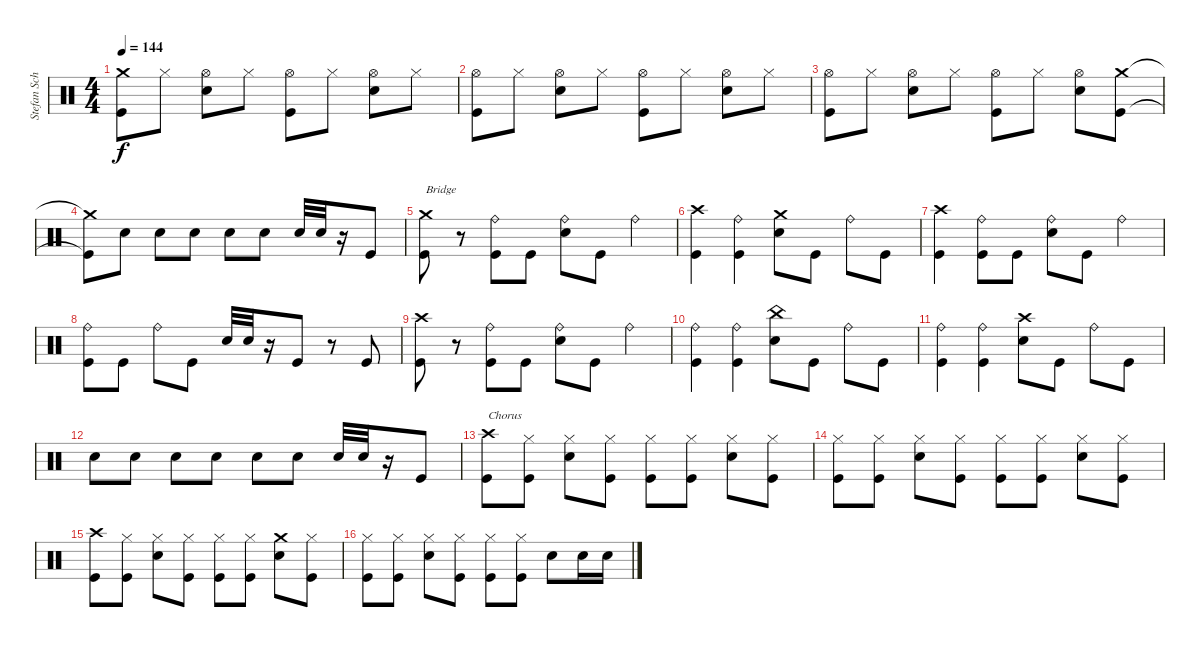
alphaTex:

\track ("Stefan Schwarzmann" "Stefan Sch") {instrument percussion}
\staff {score}
\articulation defaults
\ts (4 4)
\tempo 144
\clef neutral
\ks c
("Kick (hit)"{t} "Crash medium (hit)"{t}).8{dy f} "Hi-Hat (closed)".8 ("Snare (hit) 2" "Hi-Hat (open)").8 "Hi-Hat (closed)".8 ("Kick (hit)" "Hi-Hat (open)").8 "Hi-Hat (closed)".8 ("Snare (hit) 2" "Hi-Hat (open)").8 "Hi-Hat (closed)".8 |
("Kick (hit)" "Hi-Hat (open)").8 "Hi-Hat (closed)".8 ("Snare (hit) 2" "Hi-Hat (open)").8 "Hi-Hat (closed)".8 ("Kick (hit)" "Hi-Hat (open)").8 "Hi-Hat (closed)".8 ("Snare (hit) 2" "Hi-Hat (open)").8 "Hi-Hat (closed)".8 |
("Kick (hit)" "Hi-Hat (open)").8 "Hi-Hat (closed)".8 ("Snare (hit) 2" "Hi-Hat (open)").8 "Hi-Hat (closed)".8 ("Kick (hit)" "Hi-Hat (open)").8 "Hi-Hat (closed)".8 ("Snare (hit) 2" "Hi-Hat (open)").8 ("Crash medium (hit)" "Kick (hit)").8 |
("Crash medium (hit)"{t} "Kick (hit)"{t}).8 "Snare (hit) 2".8 "Snare (hit) 2".8 "Snare (hit) 2".8 "Snare (hit) 2".8 "Snare (hit) 2".8 "Snare (hit) 2".32 "Snare (hit) 2".32 r.16 "Kick (hit)".8 |
("Kick (hit)" "Crash medium (hit)").8{txt "Bridge"} r.8 ("Kick (hit)" "Ride (bell)").8 "Kick (hit)".8 ("Snare (hit) 2" "Ride (bell)").8 "Kick (hit)".8 "Ride (bell)".4 |
("Kick (hit)" "Crash high (hit)").4 ("Kick (hit)" "Ride (bell)").4 ("Snare (hit) 2" "Crash medium (hit)").8 "Kick (hit)".8 "Ride (bell)".8 "Kick (hit)".8 |
("Kick (hit)" "Crash high (hit)").4 ("Kick (hit)" "Ride (bell)").8 "Kick (hit)".8 ("Snare (hit) 2" "Ride (bell)").8 "Kick (hit)".8 "Ride (bell)".4 |
("Kick (hit)" "Ride (bell)").8 "Kick (hit)".8 "Ride (bell)".8 "Kick (hit)".8 "Snare (hit) 2".32 "Snare (hit) 2".32 r.16 "Kick (hit)".8 r.8 "Kick (hit)".8 |
("Kick (hit)" "Crash high (hit)").8 r.8 ("Kick (hit)" "Ride (bell)").8 "Kick (hit)".8 ("Snare (hit) 2" "Ride (bell)").8 "Kick (hit)".8 "Ride (bell)".4 |
("Kick (hit)" "Ride (bell)").4 ("Kick (hit)" "Ride (bell)").4 ("Snare (hit) 2" "China (hit)").8 "Kick (hit)".8 "Ride (bell)".8 "Kick (hit)".8 |
("Kick (hit)" "Ride (bell)").4 ("Kick (hit)" "Ride (bell)").4 ("Snare (hit) 2" "Crash high (hit)").8 "Kick (hit)".8 "Ride (bell)".8 "Kick (hit)".8 |
"Snare (hit) 2".8 "Snare (hit) 2".8 "Snare (hit) 2".8 "Snare (hit) 2".8 "Snare (hit) 2".8 "Snare (hit) 2".8 "Snare (hit) 2".32 "Snare (hit) 2".32 r.16 "Kick (hit)".8 |
("Kick (hit)" "Crash high (hit)").8{txt "Chorus"} ("Kick (hit)" "Hi-Hat (closed)").8 ("Snare (hit) 2" "Hi-Hat (closed)").8 ("Kick (hit)" "Hi-Hat (closed)").8 ("Kick (hit)" "Hi-Hat (closed)").8 ("Kick (hit)" "Hi-Hat (closed)").8 ("Snare (hit) 2" "Hi-Hat (closed)").8 ("Kick (hit)" "Hi-Hat (closed)").8 |
("Kick (hit)" "Hi-Hat (closed)").8 ("Kick (hit)" "Hi-Hat (closed)").8 ("Snare (hit) 2" "Hi-Hat (closed)").8 ("Kick (hit)" "Hi-Hat (closed)").8 ("Kick (hit)" "Hi-Hat (closed)").8 ("Kick (hit)" "Hi-Hat (closed)").8 ("Snare (hit) 2" "Hi-Hat (closed)").8 ("Kick (hit)" "Hi-Hat (closed)").8 |
("Kick (hit)" "Crash high (hit)").8 ("Kick (hit)" "Hi-Hat (closed)").8 ("Snare (hit) 2" "Hi-Hat (closed)").8 ("Kick (hit)" "Hi-Hat (closed)").8 ("Kick (hit)" "Hi-Hat (closed)").8 ("Kick (hit)" "Hi-Hat (closed)").8 ("Snare (hit) 2" "Crash medium (hit)").8 ("Kick (hit)" "Hi-Hat (closed)").8 |
("Kick (hit)" "Hi-Hat (closed)").8 ("Kick (hit)" "Hi-Hat (closed)").8 ("Snare (hit) 2" "Hi-Hat (closed)").8 ("Kick (hit)" "Hi-Hat (closed)").8 ("Kick (hit)" "Hi-Hat (closed)").8 ("Kick (hit)" "Hi-Hat (closed)").8 "Snare (hit) 2".8 "Snare (hit) 2".16 "Snare (hit) 2".16
